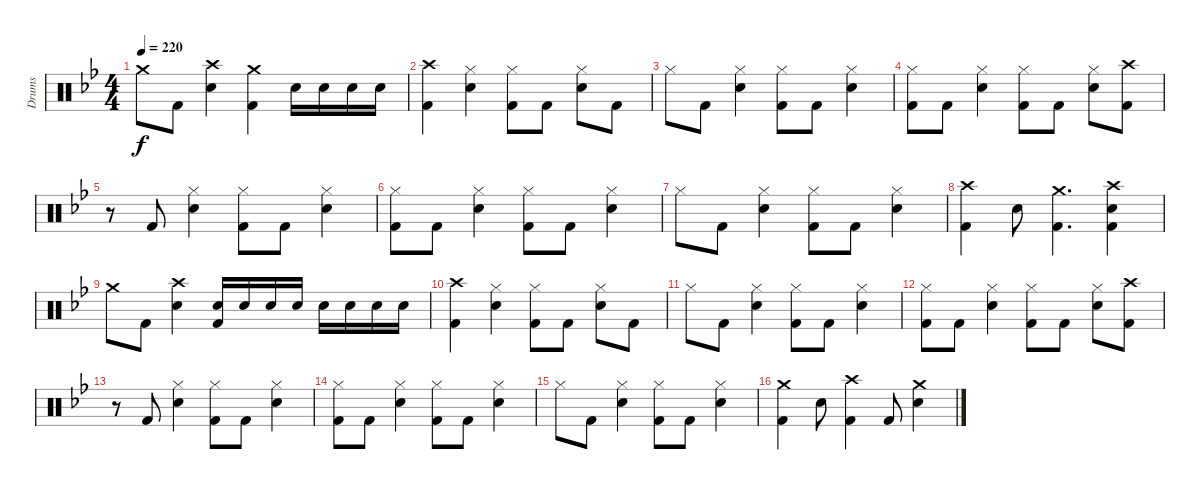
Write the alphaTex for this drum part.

\track ("Drums" "Drums") {instrument percussion}
\staff {score}
\articulation defaults
\ts (4 4)
\tempo 220
\clef neutral
\ks gminor "Crash medium (hit)".8{dy f} "Kick (hit) 2".8
("Snare (hit) 2" "Crash high (hit)").4 ("Kick (hit) 2" "Crash medium (hit)").4 "Snare (hit) 2".16 "Snare (hit) 2".16 "Snare (hit) 2".16 "Snare (hit) 2".16 |
("Kick (hit) 2" "Crash high (hit)").4 ("Snare (hit) 2" "Hi-Hat (closed)").4 ("Kick (hit) 2" "Hi-Hat (closed)").8 "Kick (hit) 2".8 ("Snare (hit) 2" "Hi-Hat (closed)").8 "Kick (hit) 2".8 |
"Hi-Hat (closed)".8 "Kick (hit) 2".8 ("Snare (hit) 2" "Hi-Hat (closed)").4 ("Kick (hit) 2" "Hi-Hat (closed)").8 "Kick (hit) 2".8 ("Snare (hit) 2" "Hi-Hat (closed)").4 |
("Kick (hit) 2" "Hi-Hat (closed)").8 "Kick (hit) 2".8 ("Snare (hit) 2" "Hi-Hat (closed)").4 ("Kick (hit) 2" "Hi-Hat (closed)").8 "Kick (hit) 2".8 ("Snare (hit) 2" "Hi-Hat (closed)").8 ("Kick (hit) 2" "Crash high (hit)").8 |
r.8 "Kick (hit) 2".8 ("Snare (hit) 2" "Hi-Hat (closed)").4 ("Kick (hit) 2" "Hi-Hat (closed)").8 "Kick (hit) 2".8 ("Snare (hit) 2" "Hi-Hat (closed)").4 |
("Kick (hit) 2" "Hi-Hat (closed)").8 "Kick (hit) 2".8 ("Snare (hit) 2" "Hi-Hat (closed)").4 ("Kick (hit) 2" "Hi-Hat (closed)").8 "Kick (hit) 2".8 ("Snare (hit) 2" "Hi-Hat (closed)").4 |
"Hi-Hat (closed)".8 "Kick (hit) 2".8 ("Snare (hit) 2" "Hi-Hat (closed)").4 ("Kick (hit) 2" "Hi-Hat (closed)").8 "Kick (hit) 2".8 ("Snare (hit) 2" "Hi-Hat (closed)").4 |
("Kick (hit) 2" "Crash high (hit)").4 "Snare (hit) 2".8 ("Kick (hit) 2" "Crash medium (hit)").4{d} ("Kick (hit) 2" "Snare (hit) 2" "Crash high (hit)").4 |
"Crash medium (hit)".8 "Kick (hit) 2".8 ("Snare (hit) 2" "Crash high (hit)").4 ("Kick (hit) 2" "Snare (hit) 2").16 "Snare (hit) 2".16 "Snare (hit) 2".16 "Snare (hit) 2".16 "Snare (hit) 2".16 "Snare (hit) 2".16 "Snare (hit) 2".16 "Snare (hit) 2".16 |
("Kick (hit) 2" "Crash high (hit)").4 ("Snare (hit) 2" "Hi-Hat (closed)").4 ("Kick (hit) 2" "Hi-Hat (closed)").8 "Kick (hit) 2".8 ("Snare (hit) 2" "Hi-Hat (closed)").8 "Kick (hit) 2".8 |
"Hi-Hat (closed)".8 "Kick (hit) 2".8 ("Snare (hit) 2" "Hi-Hat (closed)").4 ("Kick (hit) 2" "Hi-Hat (closed)").8 "Kick (hit) 2".8 ("Snare (hit) 2" "Hi-Hat (closed)").4 |
("Kick (hit) 2" "Hi-Hat (closed)").8 "Kick (hit) 2".8 ("Snare (hit) 2" "Hi-Hat (closed)").4 ("Kick (hit) 2" "Hi-Hat (closed)").8 "Kick (hit) 2".8 ("Snare (hit) 2" "Hi-Hat (closed)").8 ("Kick (hit) 2" "Crash high (hit)").8 |
r.8 "Kick (hit) 2".8 ("Snare (hit) 2" "Hi-Hat (closed)").4 ("Kick (hit) 2" "Hi-Hat (closed)").8 "Kick (hit) 2".8 ("Snare (hit) 2" "Hi-Hat (closed)").4 |
("Kick (hit) 2" "Hi-Hat (closed)").8 "Kick (hit) 2".8 ("Snare (hit) 2" "Hi-Hat (closed)").4 ("Kick (hit) 2" "Hi-Hat (closed)").8 "Kick (hit) 2".8 ("Snare (hit) 2" "Hi-Hat (closed)").4 |
"Hi-Hat (closed)".8 "Kick (hit) 2".8 ("Snare (hit) 2" "Hi-Hat (closed)").4 ("Kick (hit) 2" "Hi-Hat (closed)").8 "Kick (hit) 2".8 ("Snare (hit) 2" "Hi-Hat (closed)").4 |
("Kick (hit) 2" "Crash medium (hit)").4 "Snare (hit) 2".8 ("Kick (hit) 2" "Crash high (hit)").4 "Kick (hit) 2".8 ("Snare (hit) 2" "Crash medium (hit)").4
